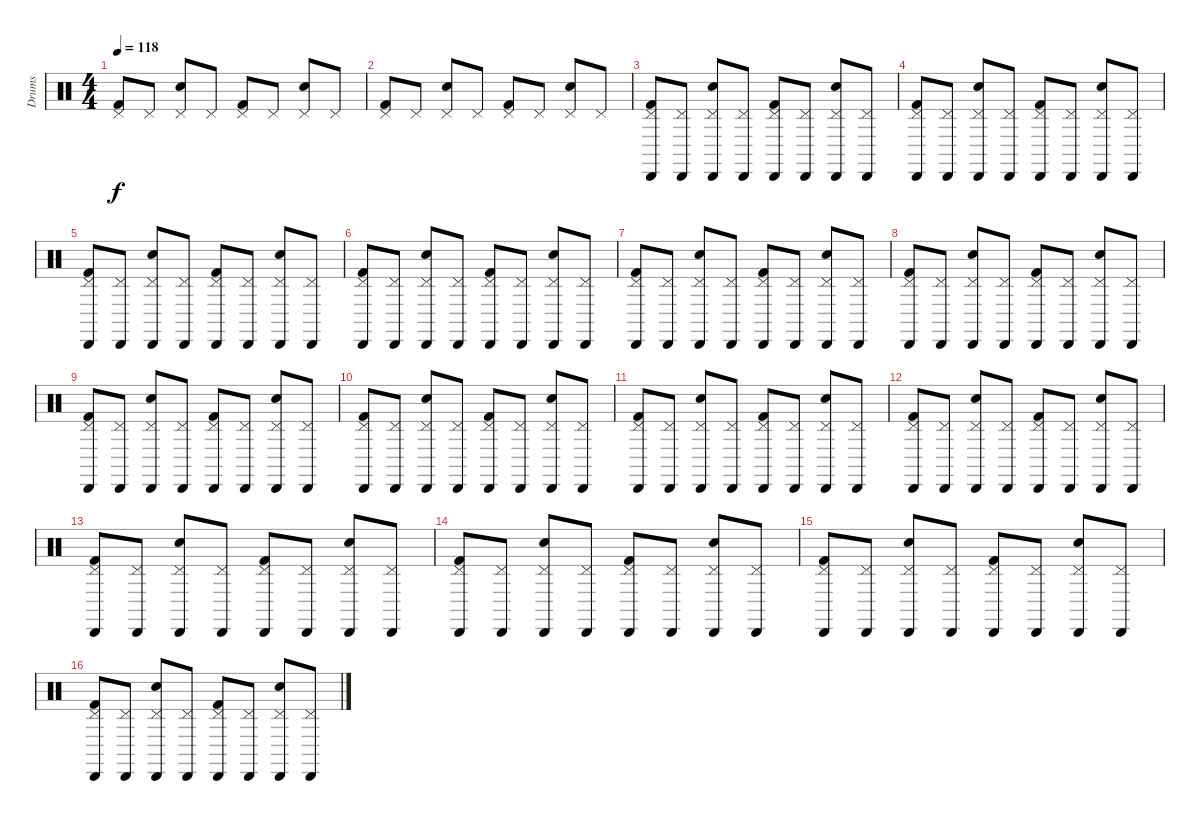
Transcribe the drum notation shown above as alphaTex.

\track ("Drums" "Drums") {instrument percussion}
\staff {score}
\articulation defaults
\ts (4 4)
\tempo 118
\clef neutral
\ks c
("Kick (hit) 2" "Pedal Hi-Hat (hit)").8{dy f} "Pedal Hi-Hat (hit)".8 ("Pedal Hi-Hat (hit)" "Electric Snare (hit)").8 "Pedal Hi-Hat (hit)".8 ("Kick (hit) 2" "Pedal Hi-Hat (hit)").8 "Pedal Hi-Hat (hit)".8 ("Pedal Hi-Hat (hit)" "Electric Snare (hit)").8 "Pedal Hi-Hat (hit)".8 |
("Kick (hit) 2" "Pedal Hi-Hat (hit)").8 "Pedal Hi-Hat (hit)".8 ("Pedal Hi-Hat (hit)" "Electric Snare (hit)").8 "Pedal Hi-Hat (hit)".8 ("Kick (hit) 2" "Pedal Hi-Hat (hit)").8 "Pedal Hi-Hat (hit)".8 ("Pedal Hi-Hat (hit)" "Electric Snare (hit)").8 "Pedal Hi-Hat (hit)".8 |
("Kick (hit) 2" "Pedal Hi-Hat (hit)" "Cabasa (hit)").8 ("Pedal Hi-Hat (hit)" "Cabasa (hit)").8 ("Pedal Hi-Hat (hit)" "Electric Snare (hit)" "Cabasa (hit)").8 ("Pedal Hi-Hat (hit)" "Cabasa (hit)").8 ("Kick (hit) 2" "Pedal Hi-Hat (hit)" "Cabasa (hit)").8 ("Pedal Hi-Hat (hit)" "Cabasa (hit)").8 ("Pedal Hi-Hat (hit)" "Electric Snare (hit)" "Cabasa (hit)").8 ("Pedal Hi-Hat (hit)" "Cabasa (hit)").8 |
("Kick (hit) 2" "Pedal Hi-Hat (hit)" "Cabasa (hit)").8 ("Pedal Hi-Hat (hit)" "Cabasa (hit)").8 ("Pedal Hi-Hat (hit)" "Electric Snare (hit)" "Cabasa (hit)").8 ("Pedal Hi-Hat (hit)" "Cabasa (hit)").8 ("Kick (hit) 2" "Pedal Hi-Hat (hit)" "Cabasa (hit)").8 ("Pedal Hi-Hat (hit)" "Cabasa (hit)").8 ("Pedal Hi-Hat (hit)" "Electric Snare (hit)" "Cabasa (hit)").8 ("Pedal Hi-Hat (hit)" "Cabasa (hit)").8 |
("Kick (hit) 2" "Pedal Hi-Hat (hit)" "Cabasa (hit)").8 ("Pedal Hi-Hat (hit)" "Cabasa (hit)").8 ("Pedal Hi-Hat (hit)" "Electric Snare (hit)" "Cabasa (hit)").8 ("Pedal Hi-Hat (hit)" "Cabasa (hit)").8 ("Kick (hit) 2" "Pedal Hi-Hat (hit)" "Cabasa (hit)").8 ("Pedal Hi-Hat (hit)" "Cabasa (hit)").8 ("Pedal Hi-Hat (hit)" "Electric Snare (hit)" "Cabasa (hit)").8 ("Pedal Hi-Hat (hit)" "Cabasa (hit)").8 |
("Kick (hit) 2" "Pedal Hi-Hat (hit)" "Cabasa (hit)").8 ("Pedal Hi-Hat (hit)" "Cabasa (hit)").8 ("Pedal Hi-Hat (hit)" "Electric Snare (hit)" "Cabasa (hit)").8 ("Pedal Hi-Hat (hit)" "Cabasa (hit)").8 ("Kick (hit) 2" "Pedal Hi-Hat (hit)" "Cabasa (hit)").8 ("Pedal Hi-Hat (hit)" "Cabasa (hit)").8 ("Pedal Hi-Hat (hit)" "Electric Snare (hit)" "Cabasa (hit)").8 ("Pedal Hi-Hat (hit)" "Cabasa (hit)").8 |
("Kick (hit) 2" "Pedal Hi-Hat (hit)" "Cabasa (hit)").8 ("Pedal Hi-Hat (hit)" "Cabasa (hit)").8 ("Pedal Hi-Hat (hit)" "Electric Snare (hit)" "Cabasa (hit)").8 ("Pedal Hi-Hat (hit)" "Cabasa (hit)").8 ("Kick (hit) 2" "Pedal Hi-Hat (hit)" "Cabasa (hit)").8 ("Pedal Hi-Hat (hit)" "Cabasa (hit)").8 ("Pedal Hi-Hat (hit)" "Electric Snare (hit)" "Cabasa (hit)").8 ("Pedal Hi-Hat (hit)" "Cabasa (hit)").8 |
("Kick (hit) 2" "Pedal Hi-Hat (hit)" "Cabasa (hit)").8 ("Pedal Hi-Hat (hit)" "Cabasa (hit)").8 ("Pedal Hi-Hat (hit)" "Electric Snare (hit)" "Cabasa (hit)").8 ("Pedal Hi-Hat (hit)" "Cabasa (hit)").8 ("Kick (hit) 2" "Pedal Hi-Hat (hit)" "Cabasa (hit)").8 ("Pedal Hi-Hat (hit)" "Cabasa (hit)").8 ("Pedal Hi-Hat (hit)" "Electric Snare (hit)" "Cabasa (hit)").8 ("Pedal Hi-Hat (hit)" "Cabasa (hit)").8 |
("Kick (hit) 2" "Pedal Hi-Hat (hit)" "Cabasa (hit)").8 ("Pedal Hi-Hat (hit)" "Cabasa (hit)").8 ("Pedal Hi-Hat (hit)" "Electric Snare (hit)" "Cabasa (hit)").8 ("Pedal Hi-Hat (hit)" "Cabasa (hit)").8 ("Kick (hit) 2" "Pedal Hi-Hat (hit)" "Cabasa (hit)").8 ("Pedal Hi-Hat (hit)" "Cabasa (hit)").8 ("Pedal Hi-Hat (hit)" "Electric Snare (hit)" "Cabasa (hit)").8 ("Pedal Hi-Hat (hit)" "Cabasa (hit)").8 |
("Kick (hit) 2" "Pedal Hi-Hat (hit)" "Cabasa (hit)").8 ("Pedal Hi-Hat (hit)" "Cabasa (hit)").8 ("Pedal Hi-Hat (hit)" "Electric Snare (hit)" "Cabasa (hit)").8 ("Pedal Hi-Hat (hit)" "Cabasa (hit)").8 ("Kick (hit) 2" "Pedal Hi-Hat (hit)" "Cabasa (hit)").8 ("Pedal Hi-Hat (hit)" "Cabasa (hit)").8 ("Pedal Hi-Hat (hit)" "Electric Snare (hit)" "Cabasa (hit)").8 ("Pedal Hi-Hat (hit)" "Cabasa (hit)").8 |
("Kick (hit) 2" "Pedal Hi-Hat (hit)" "Cabasa (hit)").8 ("Pedal Hi-Hat (hit)" "Cabasa (hit)").8 ("Pedal Hi-Hat (hit)" "Electric Snare (hit)" "Cabasa (hit)").8 ("Pedal Hi-Hat (hit)" "Cabasa (hit)").8 ("Kick (hit) 2" "Pedal Hi-Hat (hit)" "Cabasa (hit)").8 ("Pedal Hi-Hat (hit)" "Cabasa (hit)").8 ("Pedal Hi-Hat (hit)" "Electric Snare (hit)" "Cabasa (hit)").8 ("Pedal Hi-Hat (hit)" "Cabasa (hit)").8 |
("Kick (hit) 2" "Pedal Hi-Hat (hit)" "Cabasa (hit)").8 ("Pedal Hi-Hat (hit)" "Cabasa (hit)").8 ("Pedal Hi-Hat (hit)" "Electric Snare (hit)" "Cabasa (hit)").8 ("Pedal Hi-Hat (hit)" "Cabasa (hit)").8 ("Kick (hit) 2" "Pedal Hi-Hat (hit)" "Cabasa (hit)").8 ("Pedal Hi-Hat (hit)" "Cabasa (hit)").8 ("Pedal Hi-Hat (hit)" "Electric Snare (hit)" "Cabasa (hit)").8 ("Pedal Hi-Hat (hit)" "Cabasa (hit)").8 |
("Kick (hit) 2" "Pedal Hi-Hat (hit)" "Cabasa (hit)").8 ("Pedal Hi-Hat (hit)" "Cabasa (hit)").8 ("Pedal Hi-Hat (hit)" "Electric Snare (hit)" "Cabasa (hit)").8 ("Pedal Hi-Hat (hit)" "Cabasa (hit)").8 ("Kick (hit) 2" "Pedal Hi-Hat (hit)" "Cabasa (hit)").8 ("Pedal Hi-Hat (hit)" "Cabasa (hit)").8 ("Pedal Hi-Hat (hit)" "Electric Snare (hit)" "Cabasa (hit)").8 ("Pedal Hi-Hat (hit)" "Cabasa (hit)").8 |
("Kick (hit) 2" "Pedal Hi-Hat (hit)" "Cabasa (hit)").8 ("Pedal Hi-Hat (hit)" "Cabasa (hit)").8 ("Pedal Hi-Hat (hit)" "Electric Snare (hit)" "Cabasa (hit)").8 ("Pedal Hi-Hat (hit)" "Cabasa (hit)").8 ("Kick (hit) 2" "Pedal Hi-Hat (hit)" "Cabasa (hit)").8 ("Pedal Hi-Hat (hit)" "Cabasa (hit)").8 ("Pedal Hi-Hat (hit)" "Electric Snare (hit)" "Cabasa (hit)").8 ("Pedal Hi-Hat (hit)" "Cabasa (hit)").8 |
("Kick (hit) 2" "Pedal Hi-Hat (hit)" "Cabasa (hit)").8 ("Pedal Hi-Hat (hit)" "Cabasa (hit)").8 ("Pedal Hi-Hat (hit)" "Electric Snare (hit)" "Cabasa (hit)").8 ("Pedal Hi-Hat (hit)" "Cabasa (hit)").8 ("Kick (hit) 2" "Pedal Hi-Hat (hit)" "Cabasa (hit)").8 ("Pedal Hi-Hat (hit)" "Cabasa (hit)").8 ("Pedal Hi-Hat (hit)" "Electric Snare (hit)" "Cabasa (hit)").8 ("Pedal Hi-Hat (hit)" "Cabasa (hit)").8 |
("Kick (hit) 2" "Pedal Hi-Hat (hit)" "Cabasa (hit)").8 ("Pedal Hi-Hat (hit)" "Cabasa (hit)").8 ("Pedal Hi-Hat (hit)" "Electric Snare (hit)" "Cabasa (hit)").8 ("Pedal Hi-Hat (hit)" "Cabasa (hit)").8 ("Kick (hit) 2" "Pedal Hi-Hat (hit)" "Cabasa (hit)").8 ("Pedal Hi-Hat (hit)" "Cabasa (hit)").8 ("Pedal Hi-Hat (hit)" "Electric Snare (hit)" "Cabasa (hit)").8 ("Pedal Hi-Hat (hit)" "Cabasa (hit)").8
